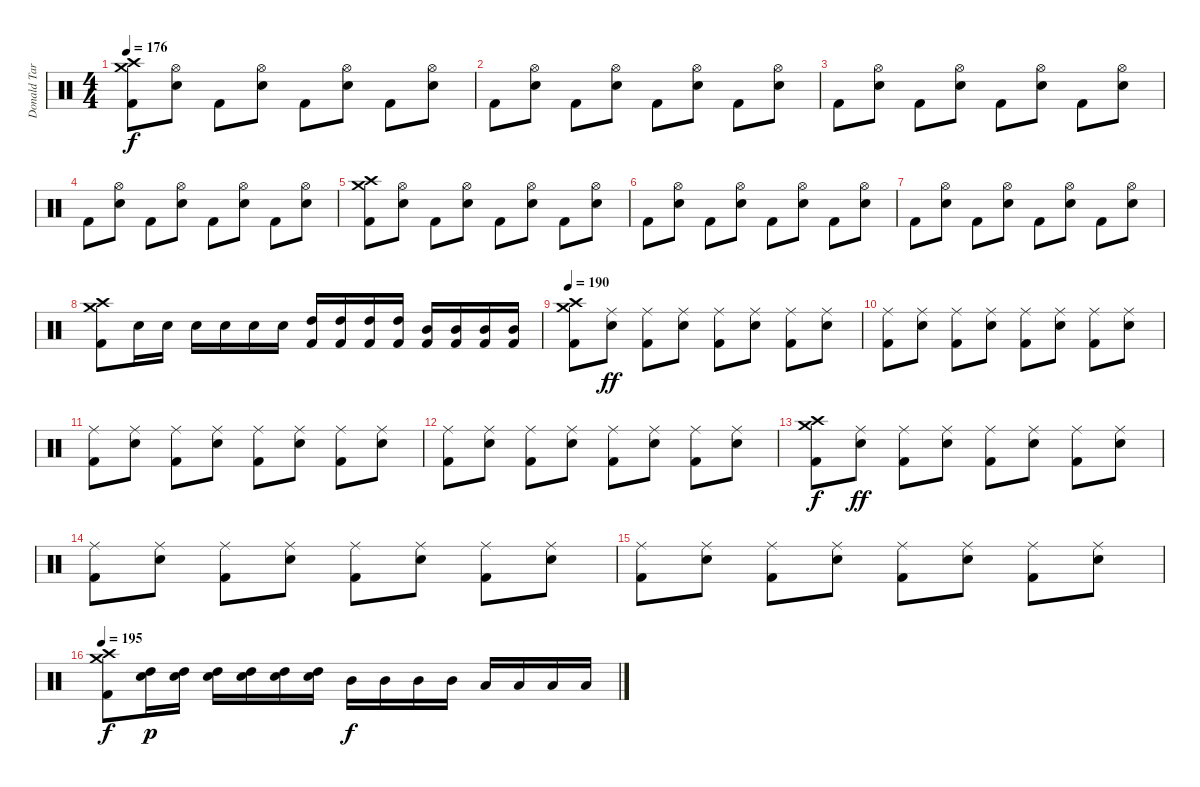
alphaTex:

\track ("Donald Tardy (Drums)" "Donald Tar") {instrument percussion}
\staff {score}
\articulation defaults
\ts (4 4)
\tempo 176
\clef neutral
\ks c
("Kick (hit) 2" "Crash medium (hit)" "Crash high (hit)").8{dy f} ("Electric Snare (hit)" "Hi-Hat (open)").8 "Kick (hit) 2".8 ("Electric Snare (hit)" "Hi-Hat (open)").8 "Kick (hit) 2".8 ("Electric Snare (hit)" "Hi-Hat (open)").8 "Kick (hit) 2".8 ("Electric Snare (hit)" "Hi-Hat (open)").8 |
"Kick (hit) 2".8 ("Electric Snare (hit)" "Hi-Hat (open)").8 "Kick (hit) 2".8 ("Electric Snare (hit)" "Hi-Hat (open)").8 "Kick (hit) 2".8 ("Electric Snare (hit)" "Hi-Hat (open)").8 "Kick (hit) 2".8 ("Electric Snare (hit)" "Hi-Hat (open)").8 |
"Kick (hit) 2".8 ("Electric Snare (hit)" "Hi-Hat (open)").8 "Kick (hit) 2".8 ("Electric Snare (hit)" "Hi-Hat (open)").8 "Kick (hit) 2".8 ("Electric Snare (hit)" "Hi-Hat (open)").8 "Kick (hit) 2".8 ("Electric Snare (hit)" "Hi-Hat (open)").8 |
"Kick (hit) 2".8 ("Electric Snare (hit)" "Hi-Hat (open)").8 "Kick (hit) 2".8 ("Electric Snare (hit)" "Hi-Hat (open)").8 "Kick (hit) 2".8 ("Electric Snare (hit)" "Hi-Hat (open)").8 "Kick (hit) 2".8 ("Electric Snare (hit)" "Hi-Hat (open)").8 |
("Kick (hit) 2" "Crash medium (hit)" "Crash high (hit)").8 ("Electric Snare (hit)" "Hi-Hat (open)").8 "Kick (hit) 2".8 ("Electric Snare (hit)" "Hi-Hat (open)").8 "Kick (hit) 2".8 ("Electric Snare (hit)" "Hi-Hat (open)").8 "Kick (hit) 2".8 ("Electric Snare (hit)" "Hi-Hat (open)").8 |
"Kick (hit) 2".8 ("Electric Snare (hit)" "Hi-Hat (open)").8 "Kick (hit) 2".8 ("Electric Snare (hit)" "Hi-Hat (open)").8 "Kick (hit) 2".8 ("Electric Snare (hit)" "Hi-Hat (open)").8 "Kick (hit) 2".8 ("Electric Snare (hit)" "Hi-Hat (open)").8 |
"Kick (hit) 2".8 ("Electric Snare (hit)" "Hi-Hat (open)").8 "Kick (hit) 2".8 ("Electric Snare (hit)" "Hi-Hat (open)").8 "Kick (hit) 2".8 ("Electric Snare (hit)" "Hi-Hat (open)").8 "Kick (hit) 2".8 ("Electric Snare (hit)" "Hi-Hat (open)").8 |
("Crash medium (hit)" "Crash high (hit)" "Kick (hit) 2").8 "Electric Snare (hit)".16 "Electric Snare (hit)".16 "Electric Snare (hit)".16 "Electric Snare (hit)".16 "Electric Snare (hit)".16 "Electric Snare (hit)".16 ("Kick (hit) 2" "High Tom (hit)").16 ("Kick (hit) 2" "High Tom (hit)").16 ("Kick (hit) 2" "High Tom (hit)").16 ("Kick (hit) 2" "High Tom (hit)").16 ("Kick (hit) 2" "Mid Tom (hit)").16 ("Kick (hit) 2" "Mid Tom (hit)").16 ("Kick (hit) 2" "Mid Tom (hit)").16 ("Kick (hit) 2" "Mid Tom (hit)").16 |
\tempo 190
("Kick (hit) 2" "Crash medium (hit)" "Crash high (hit)").8 ("Electric Snare (hit)" "Ride (middle)").8{dy ff} ("Kick (hit) 2" "Ride (middle)").8 ("Electric Snare (hit)" "Ride (middle)").8 ("Kick (hit) 2" "Ride (middle)").8 ("Electric Snare (hit)" "Ride (middle)").8 ("Kick (hit) 2" "Ride (middle)").8 ("Electric Snare (hit)" "Ride (middle)").8 |
("Kick (hit) 2" "Ride (middle)").8 ("Electric Snare (hit)" "Ride (middle)").8 ("Kick (hit) 2" "Ride (middle)").8 ("Electric Snare (hit)" "Ride (middle)").8 ("Kick (hit) 2" "Ride (middle)").8 ("Electric Snare (hit)" "Ride (middle)").8 ("Kick (hit) 2" "Ride (middle)").8 ("Electric Snare (hit)" "Ride (middle)").8 |
("Kick (hit) 2" "Ride (middle)").8 ("Electric Snare (hit)" "Ride (middle)").8 ("Kick (hit) 2" "Ride (middle)").8 ("Electric Snare (hit)" "Ride (middle)").8 ("Kick (hit) 2" "Ride (middle)").8 ("Electric Snare (hit)" "Ride (middle)").8 ("Kick (hit) 2" "Ride (middle)").8 ("Electric Snare (hit)" "Ride (middle)").8 |
("Kick (hit) 2" "Ride (middle)").8 ("Electric Snare (hit)" "Ride (middle)").8 ("Kick (hit) 2" "Ride (middle)").8 ("Electric Snare (hit)" "Ride (middle)").8 ("Kick (hit) 2" "Ride (middle)").8 ("Electric Snare (hit)" "Ride (middle)").8 ("Kick (hit) 2" "Ride (middle)").8 ("Electric Snare (hit)" "Ride (middle)").8 |
("Kick (hit) 2" "Crash medium (hit)" "Crash high (hit)").8{dy f} ("Electric Snare (hit)" "Ride (middle)").8{dy ff} ("Kick (hit) 2" "Ride (middle)").8 ("Electric Snare (hit)" "Ride (middle)").8 ("Kick (hit) 2" "Ride (middle)").8 ("Electric Snare (hit)" "Ride (middle)").8 ("Kick (hit) 2" "Ride (middle)").8 ("Electric Snare (hit)" "Ride (middle)").8 |
("Kick (hit) 2" "Ride (middle)").8 ("Electric Snare (hit)" "Ride (middle)").8 ("Kick (hit) 2" "Ride (middle)").8 ("Electric Snare (hit)" "Ride (middle)").8 ("Kick (hit) 2" "Ride (middle)").8 ("Electric Snare (hit)" "Ride (middle)").8 ("Kick (hit) 2" "Ride (middle)").8 ("Electric Snare (hit)" "Ride (middle)").8 |
("Kick (hit) 2" "Ride (middle)").8 ("Electric Snare (hit)" "Ride (middle)").8 ("Kick (hit) 2" "Ride (middle)").8 ("Electric Snare (hit)" "Ride (middle)").8 ("Kick (hit) 2" "Ride (middle)").8 ("Electric Snare (hit)" "Ride (middle)").8 ("Kick (hit) 2" "Ride (middle)").8 ("Electric Snare (hit)" "Ride (middle)").8 |
\tempo 195
("Kick (hit) 2" "Crash medium (hit)" "Crash high (hit)").8{dy f} ("High Tom (hit)" "Electric Snare (hit)").16{dy p} ("High Tom (hit)" "Electric Snare (hit)").16 ("High Tom (hit)" "Electric Snare (hit)").16 ("High Tom (hit)" "Electric Snare (hit)").16 ("High Tom (hit)" "Electric Snare (hit)").16 ("High Tom (hit)" "Electric Snare (hit)").16 "Mid Tom (hit)".16{dy f} "Mid Tom (hit)".16 "Mid Tom (hit)".16 "Mid Tom (hit)".16 "Low Tom (hit)".16 "Low Tom (hit)".16 "Low Tom (hit)".16 "Low Tom (hit)".16
